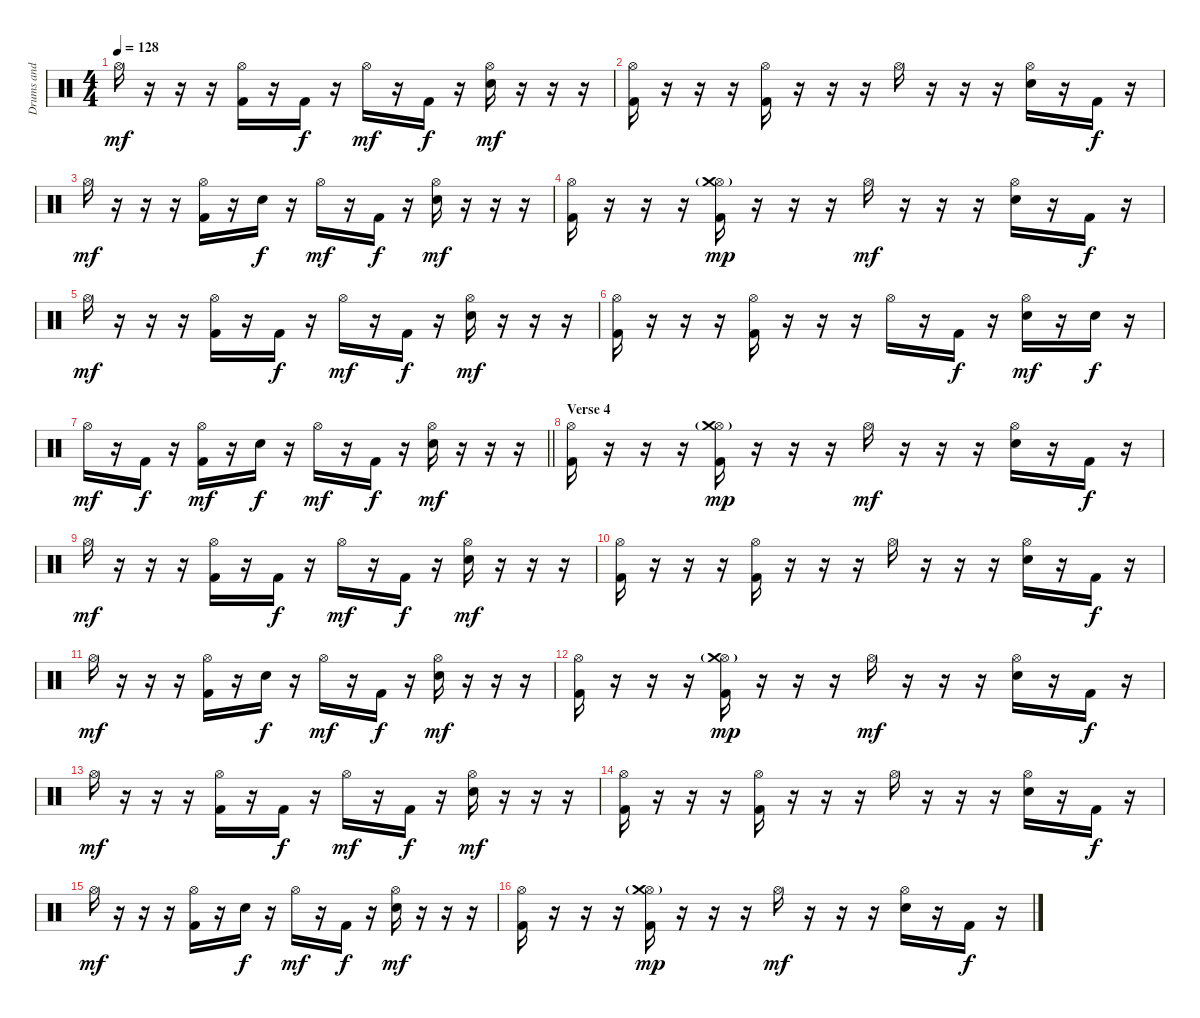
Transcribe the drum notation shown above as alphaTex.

\track ("Drums and Percussions" "Drums and ") {instrument percussion}
\staff {score}
\articulation defaults
\ts (4 4)
\tempo 128
\clef neutral
\ks c "Hi-Hat (open)".16{dy mf}
r.16 r.16 r.16 ("Hi-Hat (open)" "Kick (hit) 2").16 r.16 "Kick (hit) 2".16{dy f} r.16 "Hi-Hat (open)".16{dy mf} r.16 "Kick (hit) 2".16{dy f} r.16 ("Hi-Hat (open)" "Electric Snare (hit)").16{dy mf} r.16 r.16 r.16 |
("Hi-Hat (open)" "Kick (hit) 2").16 r.16 r.16 r.16 ("Hi-Hat (open)" "Kick (hit) 2").16 r.16 r.16 r.16 "Hi-Hat (open)".16 r.16 r.16 r.16 ("Hi-Hat (open)" "Electric Snare (hit)").16 r.16 "Kick (hit) 2".16{dy f} r.16 |
"Hi-Hat (open)".16{dy mf} r.16 r.16 r.16 ("Hi-Hat (open)" "Kick (hit) 2").16 r.16 "Electric Snare (hit)".16{dy f} r.16 "Hi-Hat (open)".16{dy mf} r.16 "Kick (hit) 2".16{dy f} r.16 ("Hi-Hat (open)" "Electric Snare (hit)").16{dy mf} r.16 r.16 r.16 |
("Hi-Hat (open)" "Kick (hit) 2").16 r.16 r.16 r.16 ("Hi-Hat (open)" "Crash medium (hit)"{g} "Kick (hit) 2").16{dy mp} r.16 r.16 r.16 "Hi-Hat (open)".16{dy mf} r.16 r.16 r.16 ("Hi-Hat (open)" "Electric Snare (hit)").16 r.16 "Kick (hit) 2".16{dy f} r.16 |
"Hi-Hat (open)".16{dy mf} r.16 r.16 r.16 ("Hi-Hat (open)" "Kick (hit) 2").16 r.16 "Kick (hit) 2".16{dy f} r.16 "Hi-Hat (open)".16{dy mf} r.16 "Kick (hit) 2".16{dy f} r.16 ("Hi-Hat (open)" "Electric Snare (hit)").16{dy mf} r.16 r.16 r.16 |
("Hi-Hat (open)" "Kick (hit) 2").16 r.16 r.16 r.16 ("Hi-Hat (open)" "Kick (hit) 2").16 r.16 r.16 r.16 "Hi-Hat (open)".16 r.16 "Kick (hit) 2".16{dy f} r.16 ("Hi-Hat (open)" "Electric Snare (hit)").16{dy mf} r.16 "Electric Snare (hit)".16{dy f} r.16 |
\barLineRight lightlight "Hi-Hat (open)".16{dy mf}
r.16 "Kick (hit) 2".16{dy f} r.16 ("Hi-Hat (open)" "Kick (hit) 2").16{dy mf} r.16 "Electric Snare (hit)".16{dy f} r.16 "Hi-Hat (open)".16{dy mf} r.16 "Kick (hit) 2".16{dy f} r.16 ("Hi-Hat (open)" "Electric Snare (hit)").16{dy mf} r.16 r.16 r.16 |
\section ("" "Verse 4")
("Hi-Hat (open)" "Kick (hit) 2").16 r.16 r.16 r.16 ("Hi-Hat (open)" "Crash medium (hit)"{g} "Kick (hit) 2").16{dy mp} r.16 r.16 r.16 "Hi-Hat (open)".16{dy mf} r.16 r.16 r.16 ("Hi-Hat (open)" "Electric Snare (hit)").16 r.16 "Kick (hit) 2".16{dy f} r.16 |
"Hi-Hat (open)".16{dy mf} r.16 r.16 r.16 ("Hi-Hat (open)" "Kick (hit) 2").16 r.16 "Kick (hit) 2".16{dy f} r.16 "Hi-Hat (open)".16{dy mf} r.16 "Kick (hit) 2".16{dy f} r.16 ("Hi-Hat (open)" "Electric Snare (hit)").16{dy mf} r.16 r.16 r.16 |
("Hi-Hat (open)" "Kick (hit) 2").16 r.16 r.16 r.16 ("Hi-Hat (open)" "Kick (hit) 2").16 r.16 r.16 r.16 "Hi-Hat (open)".16 r.16 r.16 r.16 ("Hi-Hat (open)" "Electric Snare (hit)").16 r.16 "Kick (hit) 2".16{dy f} r.16 |
"Hi-Hat (open)".16{dy mf} r.16 r.16 r.16 ("Hi-Hat (open)" "Kick (hit) 2").16 r.16 "Electric Snare (hit)".16{dy f} r.16 "Hi-Hat (open)".16{dy mf} r.16 "Kick (hit) 2".16{dy f} r.16 ("Hi-Hat (open)" "Electric Snare (hit)").16{dy mf} r.16 r.16 r.16 |
("Hi-Hat (open)" "Kick (hit) 2").16 r.16 r.16 r.16 ("Hi-Hat (open)" "Crash medium (hit)"{g} "Kick (hit) 2").16{dy mp} r.16 r.16 r.16 "Hi-Hat (open)".16{dy mf} r.16 r.16 r.16 ("Hi-Hat (open)" "Electric Snare (hit)").16 r.16 "Kick (hit) 2".16{dy f} r.16 |
"Hi-Hat (open)".16{dy mf} r.16 r.16 r.16 ("Hi-Hat (open)" "Kick (hit) 2").16 r.16 "Kick (hit) 2".16{dy f} r.16 "Hi-Hat (open)".16{dy mf} r.16 "Kick (hit) 2".16{dy f} r.16 ("Hi-Hat (open)" "Electric Snare (hit)").16{dy mf} r.16 r.16 r.16 |
("Hi-Hat (open)" "Kick (hit) 2").16 r.16 r.16 r.16 ("Hi-Hat (open)" "Kick (hit) 2").16 r.16 r.16 r.16 "Hi-Hat (open)".16 r.16 r.16 r.16 ("Hi-Hat (open)" "Electric Snare (hit)").16 r.16 "Kick (hit) 2".16{dy f} r.16 |
"Hi-Hat (open)".16{dy mf} r.16 r.16 r.16 ("Hi-Hat (open)" "Kick (hit) 2").16 r.16 "Electric Snare (hit)".16{dy f} r.16 "Hi-Hat (open)".16{dy mf} r.16 "Kick (hit) 2".16{dy f} r.16 ("Hi-Hat (open)" "Electric Snare (hit)").16{dy mf} r.16 r.16 r.16 |
("Hi-Hat (open)" "Kick (hit) 2").16 r.16 r.16 r.16 ("Hi-Hat (open)" "Crash medium (hit)"{g} "Kick (hit) 2").16{dy mp} r.16 r.16 r.16 "Hi-Hat (open)".16{dy mf} r.16 r.16 r.16 ("Hi-Hat (open)" "Electric Snare (hit)").16 r.16 "Kick (hit) 2".16{dy f} r.16
